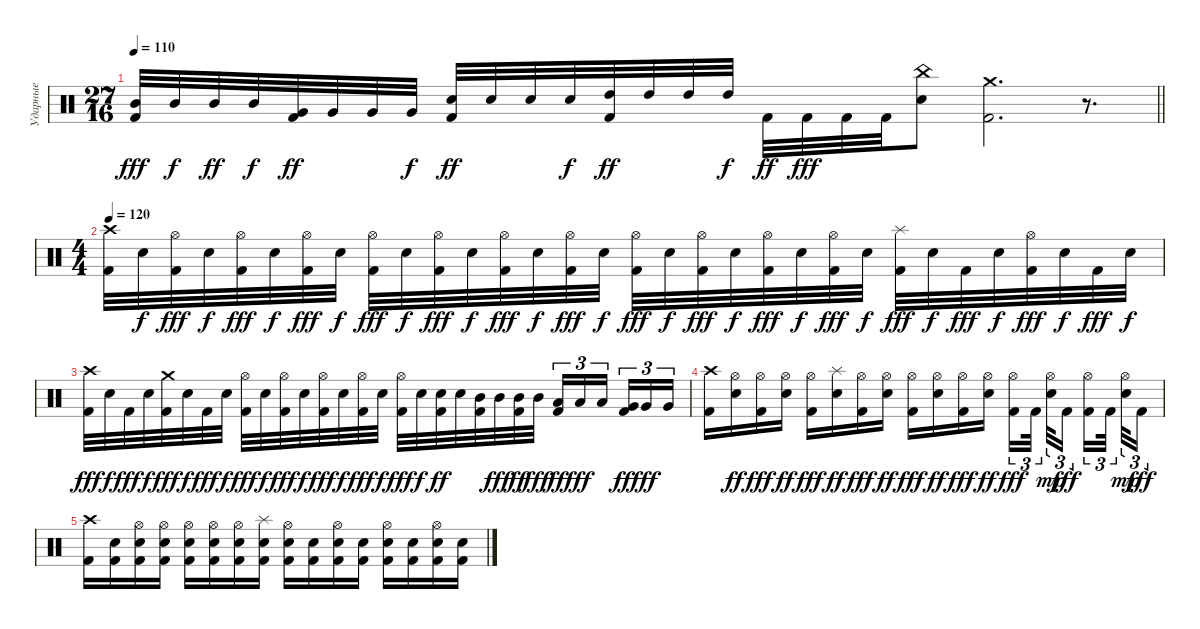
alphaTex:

\track ("Ударные" "Ударные") {solo instrument percussion}
\staff {score}
\articulation defaults
\ts (27 16)
\tempo 110
\clef neutral
\barLineRight lightlight
\ks c
("Mid Tom (hit)" "Kick (hit) 2").32{dy fff} "Mid Tom (hit)".32{dy f} "Mid Tom (hit)".32{dy ff} "Mid Tom (hit)".32{dy f} ("Very Low Tom (hit)" "Kick (hit) 2").32{dy ff} "Very Low Tom (hit)".32 "Very Low Tom (hit)".32 "Very Low Tom (hit)".32{dy f} ("Electric Snare (hit)" "Kick (hit) 2").32{dy ff} "Electric Snare (hit)".32 "Electric Snare (hit)".32 "Electric Snare (hit)".32{dy f} ("High Tom (hit)" "Kick (hit) 2").32{dy ff} "High Tom (hit)".32 "High Tom (hit)".32 "High Tom (hit)".32{dy f} "Kick (hit) 2".32{dy ff} "Kick (hit) 2".32{dy fff} "Kick (hit) 2".32 "Kick (hit) 2".32 ("China (hit)" "Electric Snare (hit)").8 ("Crash medium (hit)" "Kick (hit) 2").2{d} r.8{d} |
\ts (4 4)
\tempo 120
("Crash high (hit)" "Kick (hit) 2").32 "Electric Snare (hit)".32{dy f} ("Hi-Hat (open)" "Kick (hit) 2").32{dy fff} "Electric Snare (hit)".32{dy f} ("Hi-Hat (open)" "Kick (hit) 2").32{dy fff} "Electric Snare (hit)".32{dy f} ("Hi-Hat (open)" "Kick (hit) 2").32{dy fff} "Electric Snare (hit)".32{dy f} ("Hi-Hat (open)" "Kick (hit) 2").32{dy fff} "Electric Snare (hit)".32{dy f} ("Hi-Hat (open)" "Kick (hit) 2").32{dy fff} "Electric Snare (hit)".32{dy f} ("Hi-Hat (open)" "Kick (hit) 2").32{dy fff} "Electric Snare (hit)".32{dy f} ("Hi-Hat (open)" "Kick (hit) 2").32{dy fff} "Electric Snare (hit)".32{dy f} ("Hi-Hat (open)" "Kick (hit) 2").32{dy fff} "Electric Snare (hit)".32{dy f} ("Hi-Hat (open)" "Kick (hit) 2").32{dy fff} "Electric Snare (hit)".32{dy f} ("Hi-Hat (open)" "Kick (hit) 2").32{dy fff} "Electric Snare (hit)".32{dy f} ("Hi-Hat (open)" "Kick (hit) 2").32{dy fff} "Electric Snare (hit)".32{dy f} ("Splash (hit)" "Kick (hit) 2").32{dy fff} "Electric Snare (hit)".32{dy f} "Kick (hit) 2".32{dy fff} "Electric Snare (hit)".32{dy f} ("Hi-Hat (open)" "Kick (hit) 2").32{dy fff} "Electric Snare (hit)".32{dy f} "Kick (hit) 2".32{dy fff} "Electric Snare (hit)".32{dy f} |
("Crash high (hit)" "Kick (hit) 2").32{dy fff} "Electric Snare (hit)".32{dy f} "Kick (hit) 2".32{dy fff} "Electric Snare (hit)".32{dy f} ("Crash medium (hit)" "Kick (hit) 2").32{dy fff} "Electric Snare (hit)".32{dy f} "Kick (hit) 2".32{dy fff} "Electric Snare (hit)".32{dy f} ("Hi-Hat (open)" "Kick (hit) 2").32{dy fff} "Electric Snare (hit)".32{dy f} ("Hi-Hat (open)" "Kick (hit) 2").32{dy fff} "Electric Snare (hit)".32{dy f} ("Hi-Hat (open)" "Kick (hit) 2").32{dy fff} "Electric Snare (hit)".32{dy f} ("Hi-Hat (open)" "Kick (hit) 2").32{dy fff} "Electric Snare (hit)".32{dy f} ("Hi-Hat (open)" "Kick (hit) 2").32{dy fff} "Electric Snare (hit)".32{dy f} ("Electric Snare (hit)" "Kick (hit) 2").32{dy ff} "Electric Snare (hit)".32 ("Mid Tom (hit)" "Kick (hit) 2").32 "Mid Tom (hit)".32{dy fff} ("Mid Tom (hit)" "Kick (hit) 2").32{dy ff} "Mid Tom (hit)".32{dy fff} ("Low Tom (hit)" "Kick (hit) 2").16{tu (3 2) dy ff} "Low Tom (hit)".16{tu (3 2) dy fff} "Low Tom (hit)".16{tu (3 2) beam splitsecondary} ("Very Low Tom (hit)" "Kick (hit) 2").16{tu (3 2) dy ff} "Very Low Tom (hit)".16{tu (3 2) dy fff} "Very Low Tom (hit)".16{tu (3 2)} |
("Crash high (hit)" "Kick (hit) 2").16 ("Hi-Hat (open)" "Electric Snare (hit)").16{dy ff} ("Hi-Hat (open)" "Kick (hit) 2").16{dy fff} ("Hi-Hat (open)" "Electric Snare (hit)").16{dy ff} ("Hi-Hat (open)" "Kick (hit) 2").16{dy fff} ("Splash (hit)" "Electric Snare (hit)").16{dy ff} ("Hi-Hat (open)" "Kick (hit) 2").16{dy fff} ("Hi-Hat (open)" "Electric Snare (hit)").16{dy ff} ("Hi-Hat (open)" "Kick (hit) 2").16{dy fff} ("Hi-Hat (open)" "Electric Snare (hit)").16{dy ff} ("Hi-Hat (open)" "Kick (hit) 2").16{dy fff} ("Hi-Hat (open)" "Electric Snare (hit)").16{dy ff} ("Hi-Hat (open)" "Kick (hit) 2").16{tu (3 2) dy fff} "Kick (hit) 2".32{tu (3 2) beam splitsecondary} ("Hi-Hat (open)" "Electric Snare (hit)").32{tu (3 2) dy mp} "Kick (hit) 2".16{tu (3 2) dy fff beam splitsecondary} ("Hi-Hat (open)" "Kick (hit) 2").16{tu (3 2)} "Kick (hit) 2".32{tu (3 2) beam splitsecondary} ("Hi-Hat (open)" "Electric Snare (hit)").32{tu (3 2) dy mp} "Kick (hit) 2".16{tu (3 2) dy fff} |
("Crash high (hit)" "Kick (hit) 2").16 ("Electric Snare (hit)" "Kick (hit) 2").16 ("Hi-Hat (open)" "Electric Snare (hit)" "Kick (hit) 2").16 ("Hi-Hat (open)" "Electric Snare (hit)" "Kick (hit) 2").16 ("Hi-Hat (open)" "Electric Snare (hit)" "Kick (hit) 2").16 ("Hi-Hat (open)" "Electric Snare (hit)" "Kick (hit) 2").16 ("Hi-Hat (open)" "Electric Snare (hit)" "Kick (hit) 2").16 ("Splash (hit)" "Electric Snare (hit)" "Kick (hit) 2").16 ("Hi-Hat (open)" "Electric Snare (hit)" "Kick (hit) 2").16 ("Electric Snare (hit)" "Kick (hit) 2").16 ("Hi-Hat (open)" "Electric Snare (hit)" "Kick (hit) 2").16 ("Electric Snare (hit)" "Kick (hit) 2").16 ("Hi-Hat (open)" "Electric Snare (hit)" "Kick (hit) 2").16 ("Electric Snare (hit)" "Kick (hit) 2").16 ("Hi-Hat (open)" "Electric Snare (hit)" "Kick (hit) 2").16 ("Electric Snare (hit)" "Kick (hit) 2").16
